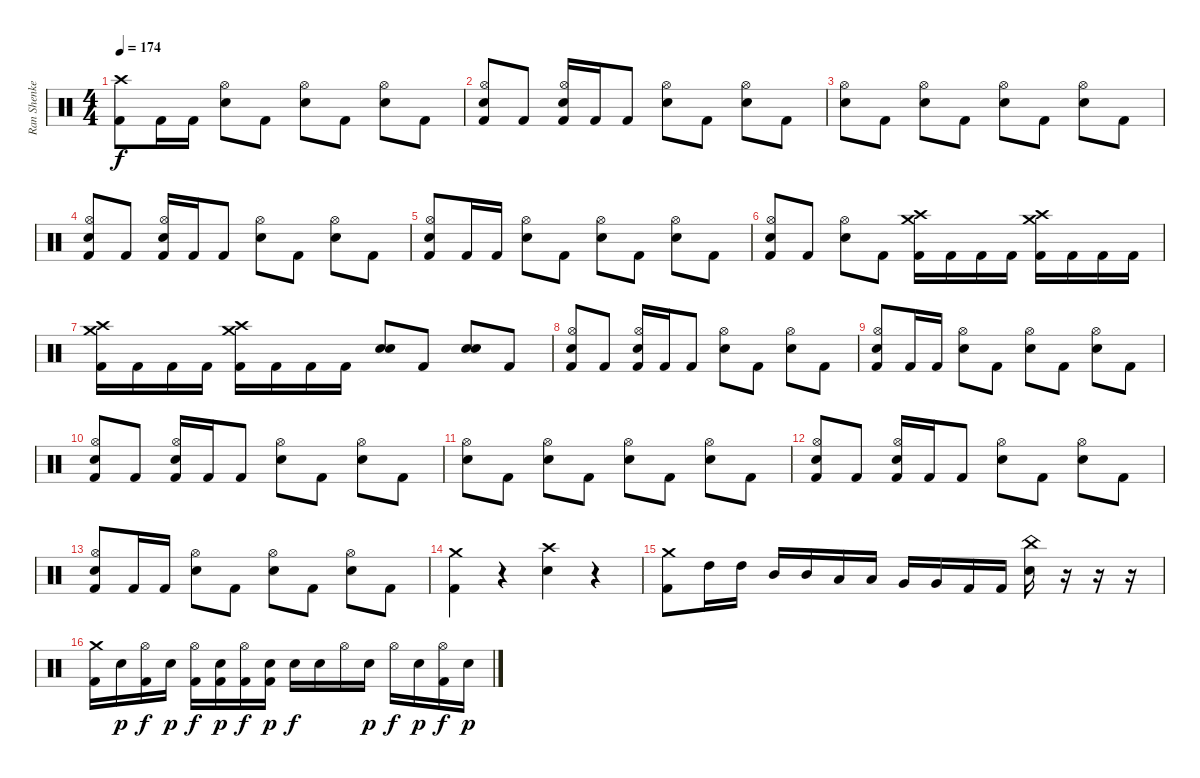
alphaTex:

\track ("Ran Shenkerman" "Ran Shenke") {instrument percussion}
\staff {score}
\articulation defaults
\ts (4 4)
\tempo 174
\clef neutral
\ks c
("Crash high (hit)" "Kick (hit) 2").8{dy f} "Kick (hit) 2".16 "Kick (hit) 2".16 ("Hi-Hat (open)" "Snare (hit) 2").8 "Kick (hit) 2".8 ("Hi-Hat (open)" "Snare (hit) 2").8 "Kick (hit) 2".8 ("Hi-Hat (open)" "Snare (hit) 2").8 "Kick (hit) 2".8 |
("Hi-Hat (open)" "Snare (hit) 2" "Kick (hit) 2").8 "Kick (hit) 2".8 ("Hi-Hat (open)" "Snare (hit) 2" "Kick (hit) 2").16 "Kick (hit) 2".16 "Kick (hit) 2".8 ("Hi-Hat (open)" "Snare (hit) 2").8 "Kick (hit) 2".8 ("Hi-Hat (open)" "Snare (hit) 2").8 "Kick (hit) 2".8 |
("Hi-Hat (open)" "Snare (hit) 2").8 "Kick (hit) 2".8 ("Hi-Hat (open)" "Snare (hit) 2").8 "Kick (hit) 2".8 ("Hi-Hat (open)" "Snare (hit) 2").8 "Kick (hit) 2".8 ("Hi-Hat (open)" "Snare (hit) 2").8 "Kick (hit) 2".8 |
("Hi-Hat (open)" "Snare (hit) 2" "Kick (hit) 2").8 "Kick (hit) 2".8 ("Hi-Hat (open)" "Snare (hit) 2" "Kick (hit) 2").16 "Kick (hit) 2".16 "Kick (hit) 2".8 ("Hi-Hat (open)" "Snare (hit) 2").8 "Kick (hit) 2".8 ("Hi-Hat (open)" "Snare (hit) 2").8 "Kick (hit) 2".8 |
("Hi-Hat (open)" "Snare (hit) 2" "Kick (hit) 2").8 "Kick (hit) 2".16 "Kick (hit) 2".16 ("Hi-Hat (open)" "Snare (hit) 2").8 "Kick (hit) 2".8 ("Hi-Hat (open)" "Snare (hit) 2").8 "Kick (hit) 2".8 ("Hi-Hat (open)" "Snare (hit) 2").8 "Kick (hit) 2".8 |
("Hi-Hat (open)" "Snare (hit) 2" "Kick (hit) 2").8 "Kick (hit) 2".8 ("Hi-Hat (open)" "Snare (hit) 2").8 "Kick (hit) 2".8 ("Crash medium (hit)" "Crash high (hit)" "Kick (hit) 2").16 "Kick (hit) 2".16 "Kick (hit) 2".16 "Kick (hit) 2".16 ("Crash medium (hit)" "Crash high (hit)" "Kick (hit) 2").16 "Kick (hit) 2".16 "Kick (hit) 2".16 "Kick (hit) 2".16 |
("Crash medium (hit)" "Crash high (hit)" "Kick (hit) 2").16 "Kick (hit) 2".16 "Kick (hit) 2".16 "Kick (hit) 2".16 ("Crash medium (hit)" "Crash high (hit)" "Kick (hit) 2").16 "Kick (hit) 2".16 "Kick (hit) 2".16 "Kick (hit) 2".16 ("Snare (hit) 2" "Snare (hit) 2").8 "Kick (hit) 2".8 ("Snare (hit) 2" "Snare (hit) 2").8 "Kick (hit) 2".8 |
("Hi-Hat (open)" "Snare (hit) 2" "Kick (hit) 2").8 "Kick (hit) 2".8 ("Hi-Hat (open)" "Snare (hit) 2" "Kick (hit) 2").16 "Kick (hit) 2".16 "Kick (hit) 2".8 ("Hi-Hat (open)" "Snare (hit) 2").8 "Kick (hit) 2".8 ("Hi-Hat (open)" "Snare (hit) 2").8 "Kick (hit) 2".8 |
("Hi-Hat (open)" "Snare (hit) 2" "Kick (hit) 2").8 "Kick (hit) 2".16 "Kick (hit) 2".16 ("Hi-Hat (open)" "Snare (hit) 2").8 "Kick (hit) 2".8 ("Hi-Hat (open)" "Snare (hit) 2").8 "Kick (hit) 2".8 ("Hi-Hat (open)" "Snare (hit) 2").8 "Kick (hit) 2".8 |
("Hi-Hat (open)" "Snare (hit) 2" "Kick (hit) 2").8 "Kick (hit) 2".8 ("Hi-Hat (open)" "Snare (hit) 2" "Kick (hit) 2").16 "Kick (hit) 2".16 "Kick (hit) 2".8 ("Hi-Hat (open)" "Snare (hit) 2").8 "Kick (hit) 2".8 ("Hi-Hat (open)" "Snare (hit) 2").8 "Kick (hit) 2".8 |
("Hi-Hat (open)" "Snare (hit) 2").8 "Kick (hit) 2".8 ("Hi-Hat (open)" "Snare (hit) 2").8 "Kick (hit) 2".8 ("Hi-Hat (open)" "Snare (hit) 2").8 "Kick (hit) 2".8 ("Hi-Hat (open)" "Snare (hit) 2").8 "Kick (hit) 2".8 |
("Hi-Hat (open)" "Snare (hit) 2" "Kick (hit) 2").8 "Kick (hit) 2".8 ("Hi-Hat (open)" "Snare (hit) 2" "Kick (hit) 2").16 "Kick (hit) 2".16 "Kick (hit) 2".8 ("Hi-Hat (open)" "Snare (hit) 2").8 "Kick (hit) 2".8 ("Hi-Hat (open)" "Snare (hit) 2").8 "Kick (hit) 2".8 |
("Hi-Hat (open)" "Snare (hit) 2" "Kick (hit) 2").8 "Kick (hit) 2".16 "Kick (hit) 2".16 ("Hi-Hat (open)" "Snare (hit) 2").8 "Kick (hit) 2".8 ("Hi-Hat (open)" "Snare (hit) 2").8 "Kick (hit) 2".8 ("Hi-Hat (open)" "Snare (hit) 2").8 "Kick (hit) 2".8 |
("Crash medium (hit)" "Kick (hit) 2").4 r.4 ("Crash high (hit)" "Snare (hit) 2").4 r.4 |
("Crash medium (hit)" "Kick (hit) 2").8 "High Tom (hit)".16 "High Tom (hit)".16 "Mid Tom (hit)".16 "Mid Tom (hit)".16 "Low Tom (hit)".16 "Low Tom (hit)".16 "Very Low Tom (hit)".16 "Very Low Tom (hit)".16 "Kick (hit) 2".16 "Kick (hit) 2".16 ("China (hit)" "Snare (hit) 2").16 r.16 r.16 r.16 |
("Crash medium (hit)" "Kick (hit) 2").16 "Snare (hit) 2".16{dy p} ("Hi-Hat (open)" "Kick (hit) 2").16{dy f} "Snare (hit) 2".16{dy p} ("Hi-Hat (open)" "Kick (hit) 2").16{dy f} ("Snare (hit) 2" "Kick (hit) 2").16{dy p} ("Hi-Hat (open)" "Kick (hit) 2").16{dy f} ("Snare (hit) 2" "Kick (hit) 2").16{dy p} "Snare (hit) 2".16{dy f} "Snare (hit) 2".16 "Hi-Hat (open)".16 "Snare (hit) 2".16{dy p} "Hi-Hat (open)".16{dy f} "Snare (hit) 2".16{dy p} ("Hi-Hat (open)" "Kick (hit) 2").16{dy f} "Snare (hit) 2".16{dy p}
